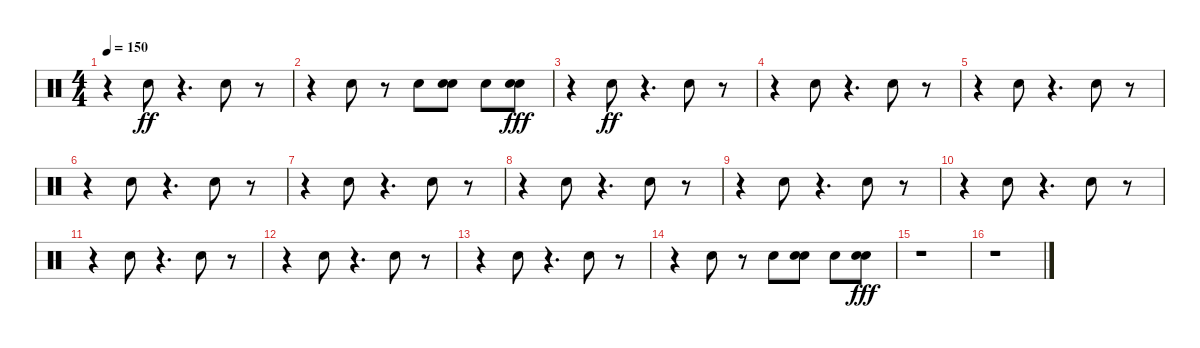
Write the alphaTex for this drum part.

\track "" {instrument percussion}
\staff {score}
\articulation defaults
\ts (4 4)
\tempo 150
\clef neutral
\ks c
r.4{dy ff} "Electric Snare (hit)".8 r.4{d} "Electric Snare (hit)".8 r.8 |
r.4 "Electric Snare (hit)".8 r.8 "Electric Snare (hit)".8 ("Electric Snare (hit)" "Electric Snare (hit)").8 "Electric Snare (hit)".8 ("Electric Snare (hit)" "Electric Snare (hit)").8{dy fff} |
r.4 "Electric Snare (hit)".8{dy ff} r.4{d} "Electric Snare (hit)".8 r.8 |
r.4 "Electric Snare (hit)".8 r.4{d} "Electric Snare (hit)".8 r.8 |
r.4 "Electric Snare (hit)".8 r.4{d} "Electric Snare (hit)".8 r.8 |
r.4 "Electric Snare (hit)".8 r.4{d} "Electric Snare (hit)".8 r.8 |
r.4 "Electric Snare (hit)".8 r.4{d} "Electric Snare (hit)".8 r.8 |
r.4 "Electric Snare (hit)".8 r.4{d} "Electric Snare (hit)".8 r.8 |
r.4 "Electric Snare (hit)".8 r.4{d} "Electric Snare (hit)".8 r.8 |
r.4 "Electric Snare (hit)".8 r.4{d} "Electric Snare (hit)".8 r.8 |
r.4 "Electric Snare (hit)".8 r.4{d} "Electric Snare (hit)".8 r.8 |
r.4 "Electric Snare (hit)".8 r.4{d} "Electric Snare (hit)".8 r.8 |
r.4 "Electric Snare (hit)".8 r.4{d} "Electric Snare (hit)".8 r.8 |
r.4 "Electric Snare (hit)".8 r.8 "Electric Snare (hit)".8 ("Electric Snare (hit)" "Electric Snare (hit)").8 "Electric Snare (hit)".8 ("Electric Snare (hit)" "Electric Snare (hit)").8{dy fff} |
r.1 |
r.1
